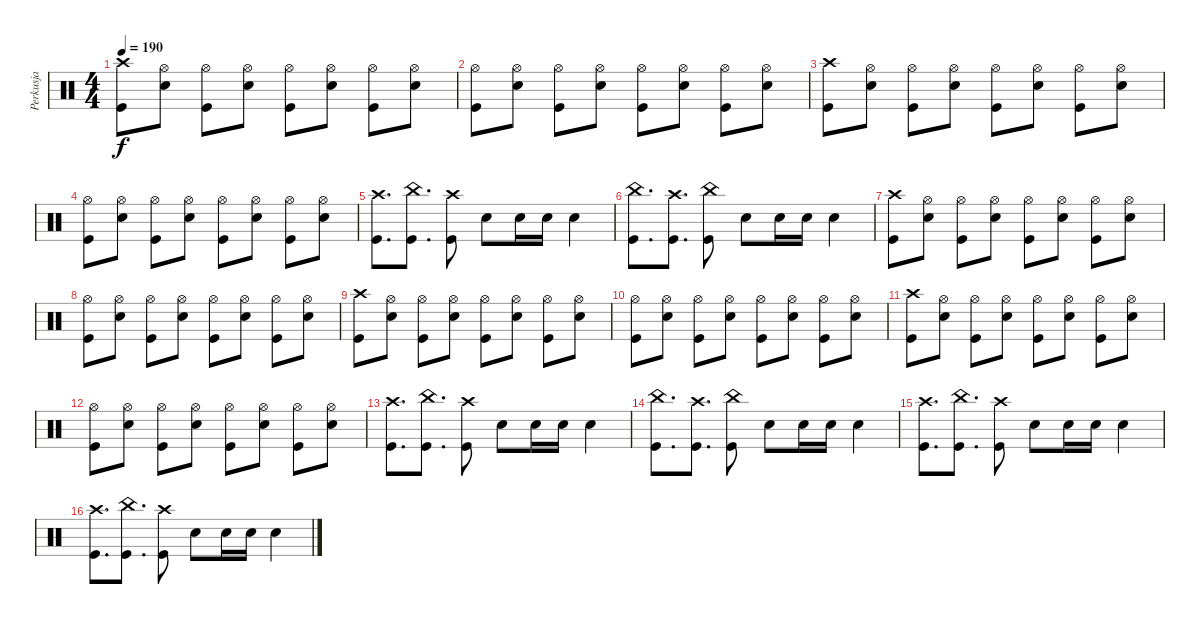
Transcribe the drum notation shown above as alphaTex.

\track ("Perkusja" "Perkusja") {instrument percussion}
\staff {score}
\articulation defaults
\ts (4 4)
\tempo 190
\clef neutral
\ks c
("Crash high (hit)" "Kick (hit)").8{dy f} ("Hi-Hat (open)" "Electric Snare (hit)").8 ("Hi-Hat (open)" "Kick (hit)").8 ("Hi-Hat (open)" "Electric Snare (hit)").8 ("Hi-Hat (open)" "Kick (hit)").8 ("Hi-Hat (open)" "Electric Snare (hit)").8 ("Hi-Hat (open)" "Kick (hit)").8 ("Hi-Hat (open)" "Electric Snare (hit)").8 |
("Hi-Hat (open)" "Kick (hit)").8 ("Hi-Hat (open)" "Electric Snare (hit)").8 ("Hi-Hat (open)" "Kick (hit)").8 ("Hi-Hat (open)" "Electric Snare (hit)").8 ("Hi-Hat (open)" "Kick (hit)").8 ("Hi-Hat (open)" "Electric Snare (hit)").8 ("Hi-Hat (open)" "Kick (hit)").8 ("Hi-Hat (open)" "Electric Snare (hit)").8 |
("Crash high (hit)" "Kick (hit)").8 ("Hi-Hat (open)" "Electric Snare (hit)").8 ("Hi-Hat (open)" "Kick (hit)").8 ("Hi-Hat (open)" "Electric Snare (hit)").8 ("Hi-Hat (open)" "Kick (hit)").8 ("Hi-Hat (open)" "Electric Snare (hit)").8 ("Hi-Hat (open)" "Kick (hit)").8 ("Hi-Hat (open)" "Electric Snare (hit)").8 |
("Hi-Hat (open)" "Kick (hit)").8 ("Hi-Hat (open)" "Electric Snare (hit)").8 ("Hi-Hat (open)" "Kick (hit)").8 ("Hi-Hat (open)" "Electric Snare (hit)").8 ("Hi-Hat (open)" "Kick (hit)").8 ("Hi-Hat (open)" "Electric Snare (hit)").8 ("Hi-Hat (open)" "Kick (hit)").8 ("Hi-Hat (open)" "Electric Snare (hit)").8 |
("Crash high (hit)" "Kick (hit)").8{d} ("China (hit)" "Kick (hit)").8{d} ("Crash high (hit)" "Kick (hit)").8 "Electric Snare (hit)".8 "Electric Snare (hit)".16 "Electric Snare (hit)".16 "Electric Snare (hit)".4 |
("China (hit)" "Kick (hit)").8{d} ("Crash high (hit)" "Kick (hit)").8{d} ("China (hit)" "Kick (hit)").8 "Electric Snare (hit)".8 "Electric Snare (hit)".16 "Electric Snare (hit)".16 "Electric Snare (hit)".4 |
("Crash high (hit)" "Kick (hit)").8 ("Hi-Hat (open)" "Electric Snare (hit)").8 ("Hi-Hat (open)" "Kick (hit)").8 ("Hi-Hat (open)" "Electric Snare (hit)").8 ("Hi-Hat (open)" "Kick (hit)").8 ("Hi-Hat (open)" "Electric Snare (hit)").8 ("Hi-Hat (open)" "Kick (hit)").8 ("Hi-Hat (open)" "Electric Snare (hit)").8 |
("Hi-Hat (open)" "Kick (hit)").8 ("Hi-Hat (open)" "Electric Snare (hit)").8 ("Hi-Hat (open)" "Kick (hit)").8 ("Hi-Hat (open)" "Electric Snare (hit)").8 ("Hi-Hat (open)" "Kick (hit)").8 ("Hi-Hat (open)" "Electric Snare (hit)").8 ("Hi-Hat (open)" "Kick (hit)").8 ("Hi-Hat (open)" "Electric Snare (hit)").8 |
("Crash high (hit)" "Kick (hit)").8 ("Hi-Hat (open)" "Electric Snare (hit)").8 ("Hi-Hat (open)" "Kick (hit)").8 ("Hi-Hat (open)" "Electric Snare (hit)").8 ("Hi-Hat (open)" "Kick (hit)").8 ("Hi-Hat (open)" "Electric Snare (hit)").8 ("Hi-Hat (open)" "Kick (hit)").8 ("Hi-Hat (open)" "Electric Snare (hit)").8 |
("Hi-Hat (open)" "Kick (hit)").8 ("Hi-Hat (open)" "Electric Snare (hit)").8 ("Hi-Hat (open)" "Kick (hit)").8 ("Hi-Hat (open)" "Electric Snare (hit)").8 ("Hi-Hat (open)" "Kick (hit)").8 ("Hi-Hat (open)" "Electric Snare (hit)").8 ("Hi-Hat (open)" "Kick (hit)").8 ("Hi-Hat (open)" "Electric Snare (hit)").8 |
("Crash high (hit)" "Kick (hit)").8 ("Hi-Hat (open)" "Electric Snare (hit)").8 ("Hi-Hat (open)" "Kick (hit)").8 ("Hi-Hat (open)" "Electric Snare (hit)").8 ("Hi-Hat (open)" "Kick (hit)").8 ("Hi-Hat (open)" "Electric Snare (hit)").8 ("Hi-Hat (open)" "Kick (hit)").8 ("Hi-Hat (open)" "Electric Snare (hit)").8 |
("Hi-Hat (open)" "Kick (hit)").8 ("Hi-Hat (open)" "Electric Snare (hit)").8 ("Hi-Hat (open)" "Kick (hit)").8 ("Hi-Hat (open)" "Electric Snare (hit)").8 ("Hi-Hat (open)" "Kick (hit)").8 ("Hi-Hat (open)" "Electric Snare (hit)").8 ("Hi-Hat (open)" "Kick (hit)").8 ("Hi-Hat (open)" "Electric Snare (hit)").8 |
("Crash high (hit)" "Kick (hit)").8{d} ("China (hit)" "Kick (hit)").8{d} ("Crash high (hit)" "Kick (hit)").8 "Electric Snare (hit)".8 "Electric Snare (hit)".16 "Electric Snare (hit)".16 "Electric Snare (hit)".4 |
("China (hit)" "Kick (hit)").8{d} ("Crash high (hit)" "Kick (hit)").8{d} ("China (hit)" "Kick (hit)").8 "Electric Snare (hit)".8 "Electric Snare (hit)".16 "Electric Snare (hit)".16 "Electric Snare (hit)".4 |
("Crash high (hit)" "Kick (hit)").8{d} ("China (hit)" "Kick (hit)").8{d} ("Crash high (hit)" "Kick (hit)").8 "Electric Snare (hit)".8 "Electric Snare (hit)".16 "Electric Snare (hit)".16 "Electric Snare (hit)".4 |
("Crash high (hit)" "Kick (hit)").8{d} ("China (hit)" "Kick (hit)").8{d} ("Crash high (hit)" "Kick (hit)").8 "Electric Snare (hit)".8 "Electric Snare (hit)".16 "Electric Snare (hit)".16 "Electric Snare (hit)".4
